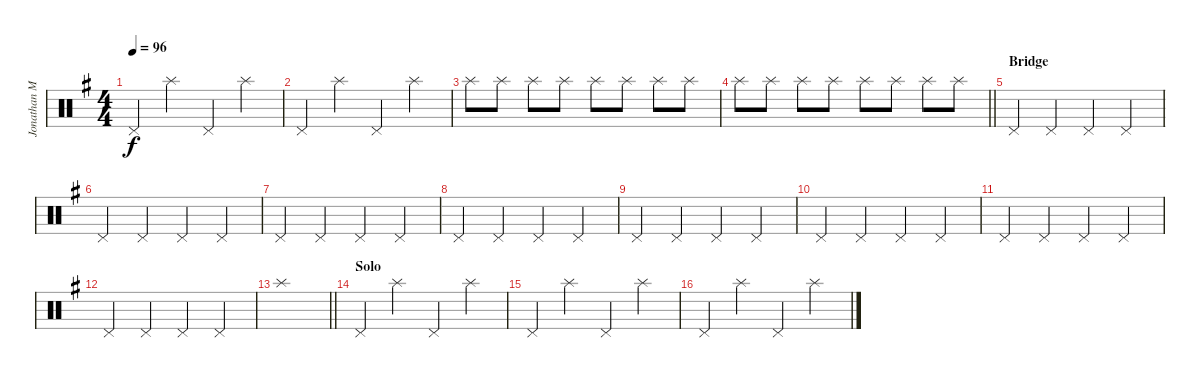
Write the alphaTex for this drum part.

\track ("Jonathan Mover (Drums)" "Jonathan M") {instrument percussion}
\staff {score}
\articulation defaults
\ts (4 4)
\tempo 96
\clef neutral
\ks g "Pedal Hi-Hat (hit)".4{dy f} "Splash (hit)".4 "Pedal Hi-Hat (hit)".4 "Splash (hit)".4
|
"Pedal Hi-Hat (hit)".4 "Splash (hit)".4 "Pedal Hi-Hat (hit)".4 "Splash (hit)".4 |
"Splash (hit)".8 "Splash (hit)".8 "Splash (hit)".8 "Splash (hit)".8 "Splash (hit)".8 "Splash (hit)".8 "Splash (hit)".8 "Splash (hit)".8 |
\barLineRight lightlight "Splash (hit)".8 "Splash (hit)".8 "Splash (hit)".8 "Splash (hit)".8 "Splash (hit)".8 "Splash (hit)".8 "Splash (hit)".8 "Splash (hit)".8
|
\section ("" "Bridge")
"Pedal Hi-Hat (hit)".4 "Pedal Hi-Hat (hit)".4 "Pedal Hi-Hat (hit)".4 "Pedal Hi-Hat (hit)".4 |
"Pedal Hi-Hat (hit)".4 "Pedal Hi-Hat (hit)".4 "Pedal Hi-Hat (hit)".4 "Pedal Hi-Hat (hit)".4 |
"Pedal Hi-Hat (hit)".4 "Pedal Hi-Hat (hit)".4 "Pedal Hi-Hat (hit)".4 "Pedal Hi-Hat (hit)".4 |
"Pedal Hi-Hat (hit)".4 "Pedal Hi-Hat (hit)".4 "Pedal Hi-Hat (hit)".4 "Pedal Hi-Hat (hit)".4 |
"Pedal Hi-Hat (hit)".4 "Pedal Hi-Hat (hit)".4 "Pedal Hi-Hat (hit)".4 "Pedal Hi-Hat (hit)".4 |
"Pedal Hi-Hat (hit)".4 "Pedal Hi-Hat (hit)".4 "Pedal Hi-Hat (hit)".4 "Pedal Hi-Hat (hit)".4 |
"Pedal Hi-Hat (hit)".4 "Pedal Hi-Hat (hit)".4 "Pedal Hi-Hat (hit)".4 "Pedal Hi-Hat (hit)".4 |
"Pedal Hi-Hat (hit)".4 "Pedal Hi-Hat (hit)".4 "Pedal Hi-Hat (hit)".4 "Pedal Hi-Hat (hit)".4 |
\barLineRight lightlight "Splash (hit)".1
|
\section ("" "Solo")
"Pedal Hi-Hat (hit)".4 "Splash (hit)".4 "Pedal Hi-Hat (hit)".4 "Splash (hit)".4 |
"Pedal Hi-Hat (hit)".4 "Splash (hit)".4 "Pedal Hi-Hat (hit)".4 "Splash (hit)".4 |
"Pedal Hi-Hat (hit)".4 "Splash (hit)".4 "Pedal Hi-Hat (hit)".4 "Splash (hit)".4
